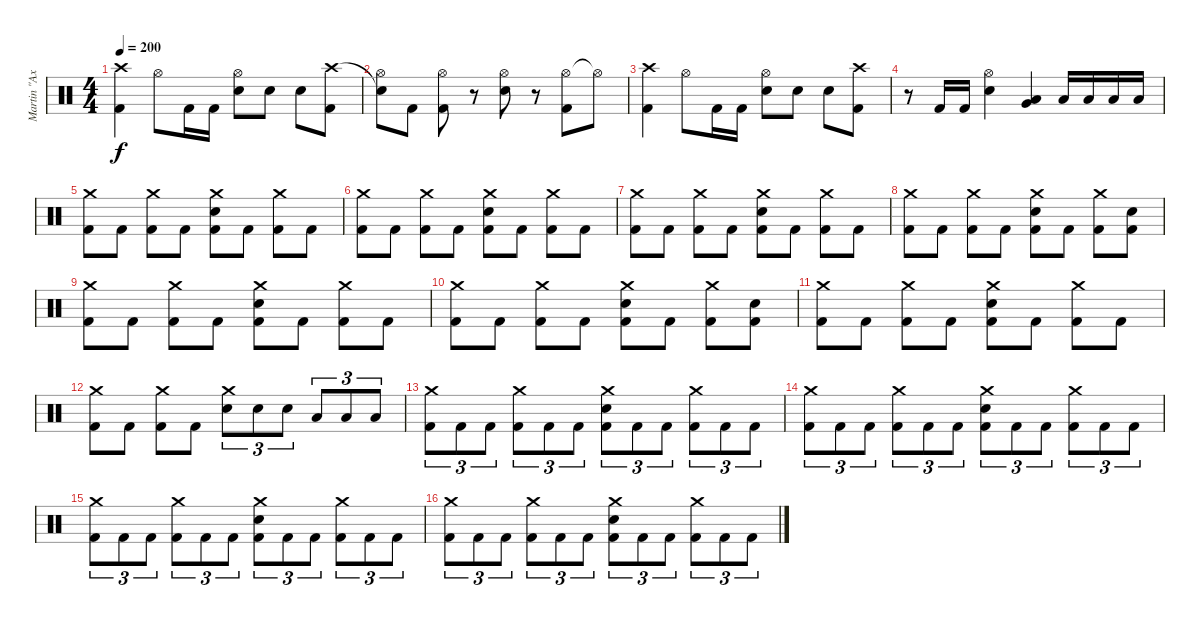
\track ("Martin \"Axe\" Axenrot" "Martin \"Ax") {instrument percussion}
\staff {score}
\articulation defaults
\ts (4 4)
\tempo 200
\clef neutral
\ks c
("Crash high (hit)" "Kick (hit) 2").4{dy f} "Hi-Hat (open)".8 "Kick (hit) 2".16 "Kick (hit) 2".16 ("Hi-Hat (open)" "Electric Snare (hit)").8 "Electric Snare (hit)".8 "Electric Snare (hit)".8 ("Crash high (hit)" "Kick (hit) 2").8 |
("Snare (hit)"{t} "Hi-Hat (open)").8 "Kick (hit) 2".8 ("Hi-Hat (open)" "Kick (hit) 2").8 r.8 ("Hi-Hat (open)" "Electric Snare (hit)").8 r.8 ("Hi-Hat (open)" "Kick (hit) 2").8 "Hi-Hat (open)"{t}.8 |
("Crash high (hit)" "Kick (hit) 2").4 "Hi-Hat (open)".8 "Kick (hit) 2".16 "Kick (hit) 2".16 ("Hi-Hat (open)" "Electric Snare (hit)").8 "Electric Snare (hit)".8 "Electric Snare (hit)".8 ("Crash high (hit)" "Kick (hit) 2").8 |
r.8 "Kick (hit) 2".16 "Kick (hit) 2".16 ("Hi-Hat (open)" "Electric Snare (hit)").4 ("Very Low Tom (hit)" "Low Floor Tom (hit)").4 "Low Tom (hit)".16 "Low Tom (hit)".16 "Low Tom (hit)".16 "Low Tom (hit)".16 |
("Crash medium (hit)" "Kick (hit) 2").8 "Kick (hit) 2".8 ("Crash medium (hit)" "Kick (hit) 2").8 "Kick (hit) 2".8 ("Crash medium (hit)" "Electric Snare (hit)" "Kick (hit) 2").8 "Kick (hit) 2".8 ("Crash medium (hit)" "Kick (hit) 2").8 "Kick (hit) 2".8 |
("Crash medium (hit)" "Kick (hit) 2").8 "Kick (hit) 2".8 ("Crash medium (hit)" "Kick (hit) 2").8 "Kick (hit) 2".8 ("Crash medium (hit)" "Electric Snare (hit)" "Kick (hit) 2").8 "Kick (hit) 2".8 ("Crash medium (hit)" "Kick (hit) 2").8 "Kick (hit) 2".8 |
("Crash medium (hit)" "Kick (hit) 2").8 "Kick (hit) 2".8 ("Crash medium (hit)" "Kick (hit) 2").8 "Kick (hit) 2".8 ("Crash medium (hit)" "Electric Snare (hit)" "Kick (hit) 2").8 "Kick (hit) 2".8 ("Crash medium (hit)" "Kick (hit) 2").8 "Kick (hit) 2".8 |
("Crash medium (hit)" "Kick (hit) 2").8 "Kick (hit) 2".8 ("Crash medium (hit)" "Kick (hit) 2").8 "Kick (hit) 2".8 ("Crash medium (hit)" "Electric Snare (hit)" "Kick (hit) 2").8 "Kick (hit) 2".8 ("Crash medium (hit)" "Kick (hit) 2").8 ("Electric Snare (hit)" "Kick (hit) 2").8 |
("Crash medium (hit)" "Kick (hit) 2").8 "Kick (hit) 2".8 ("Crash medium (hit)" "Kick (hit) 2").8 "Kick (hit) 2".8 ("Crash medium (hit)" "Electric Snare (hit)" "Kick (hit) 2").8 "Kick (hit) 2".8 ("Crash medium (hit)" "Kick (hit) 2").8 "Kick (hit) 2".8 |
("Crash medium (hit)" "Kick (hit) 2").8 "Kick (hit) 2".8 ("Crash medium (hit)" "Kick (hit) 2").8 "Kick (hit) 2".8 ("Crash medium (hit)" "Electric Snare (hit)" "Kick (hit) 2").8 "Kick (hit) 2".8 ("Crash medium (hit)" "Kick (hit) 2").8 ("Electric Snare (hit)" "Kick (hit) 2").8 |
("Crash medium (hit)" "Kick (hit) 2").8 "Kick (hit) 2".8 ("Crash medium (hit)" "Kick (hit) 2").8 "Kick (hit) 2".8 ("Crash medium (hit)" "Electric Snare (hit)" "Kick (hit) 2").8 "Kick (hit) 2".8 ("Crash medium (hit)" "Kick (hit) 2").8 "Kick (hit) 2".8 |
("Crash medium (hit)" "Kick (hit) 2").8 "Kick (hit) 2".8 ("Crash medium (hit)" "Kick (hit) 2").8 "Kick (hit) 2".8 ("Crash medium (hit)" "Electric Snare (hit)").8{tu (3 2)} "Electric Snare (hit)".8{tu (3 2)} "Electric Snare (hit)".8{tu (3 2)} "Low Tom (hit)".8{tu (3 2)} "Low Tom (hit)".8{tu (3 2)} "Low Tom (hit)".8{tu (3 2)} |
("Crash medium (hit)" "Kick (hit) 2").8{tu (3 2)} "Kick (hit) 2".8{tu (3 2)} "Kick (hit) 2".8{tu (3 2)} ("Crash medium (hit)" "Kick (hit) 2").8{tu (3 2)} "Kick (hit) 2".8{tu (3 2)} "Kick (hit) 2".8{tu (3 2)} ("Crash medium (hit)" "Electric Snare (hit)" "Kick (hit) 2").8{tu (3 2)} "Kick (hit) 2".8{tu (3 2)} "Kick (hit) 2".8{tu (3 2)} ("Crash medium (hit)" "Kick (hit) 2").8{tu (3 2)} "Kick (hit) 2".8{tu (3 2)} "Kick (hit) 2".8{tu (3 2)} |
("Crash medium (hit)" "Kick (hit) 2").8{tu (3 2)} "Kick (hit) 2".8{tu (3 2)} "Kick (hit) 2".8{tu (3 2)} ("Crash medium (hit)" "Kick (hit) 2").8{tu (3 2)} "Kick (hit) 2".8{tu (3 2)} "Kick (hit) 2".8{tu (3 2)} ("Crash medium (hit)" "Electric Snare (hit)" "Kick (hit) 2").8{tu (3 2)} "Kick (hit) 2".8{tu (3 2)} "Kick (hit) 2".8{tu (3 2)} ("Crash medium (hit)" "Kick (hit) 2").8{tu (3 2)} "Kick (hit) 2".8{tu (3 2)} "Kick (hit) 2".8{tu (3 2)} |
("Crash medium (hit)" "Kick (hit) 2").8{tu (3 2)} "Kick (hit) 2".8{tu (3 2)} "Kick (hit) 2".8{tu (3 2)} ("Crash medium (hit)" "Kick (hit) 2").8{tu (3 2)} "Kick (hit) 2".8{tu (3 2)} "Kick (hit) 2".8{tu (3 2)} ("Crash medium (hit)" "Electric Snare (hit)" "Kick (hit) 2").8{tu (3 2)} "Kick (hit) 2".8{tu (3 2)} "Kick (hit) 2".8{tu (3 2)} ("Crash medium (hit)" "Kick (hit) 2").8{tu (3 2)} "Kick (hit) 2".8{tu (3 2)} "Kick (hit) 2".8{tu (3 2)} |
("Crash medium (hit)" "Kick (hit) 2").8{tu (3 2)} "Kick (hit) 2".8{tu (3 2)} "Kick (hit) 2".8{tu (3 2)} ("Crash medium (hit)" "Kick (hit) 2").8{tu (3 2)} "Kick (hit) 2".8{tu (3 2)} "Kick (hit) 2".8{tu (3 2)} ("Crash medium (hit)" "Electric Snare (hit)" "Kick (hit) 2").8{tu (3 2)} "Kick (hit) 2".8{tu (3 2)} "Kick (hit) 2".8{tu (3 2)} ("Crash medium (hit)" "Kick (hit) 2").8{tu (3 2)} "Kick (hit) 2".8{tu (3 2)} "Kick (hit) 2".8{tu (3 2)}
